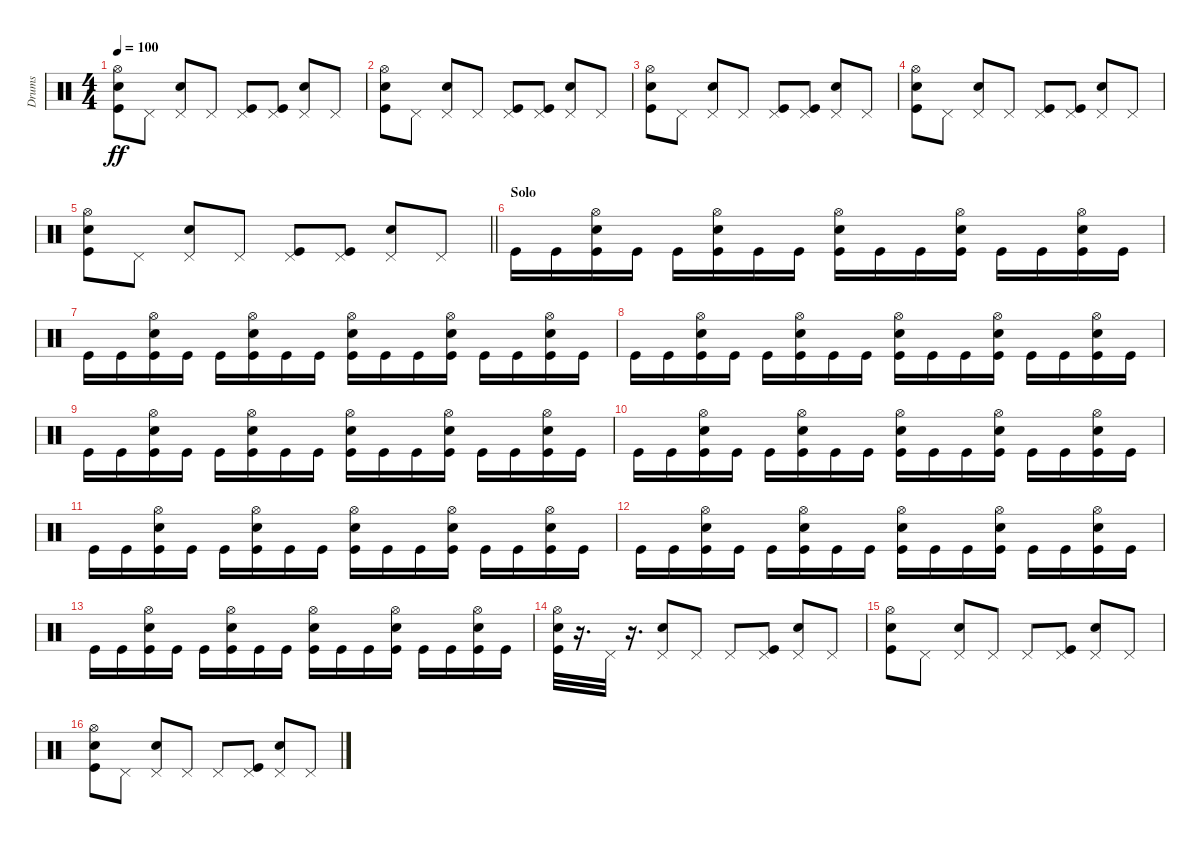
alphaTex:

\track ("Drums" "Drums") {instrument percussion}
\staff {score}
\articulation defaults
\ts (4 4)
\tempo 100
\clef neutral
\ks c
("Kick (hit)" "Electric Snare (hit)" "Hi-Hat (open)").8{dy ff} "Pedal Hi-Hat (hit)".8 ("Electric Snare (hit)" "Pedal Hi-Hat (hit)").8 "Pedal Hi-Hat (hit)".8 ("Kick (hit)" "Pedal Hi-Hat (hit)").8 ("Kick (hit)" "Pedal Hi-Hat (hit)").8 ("Electric Snare (hit)" "Pedal Hi-Hat (hit)").8 "Pedal Hi-Hat (hit)".8 |
("Kick (hit)" "Electric Snare (hit)" "Hi-Hat (open)").8 "Pedal Hi-Hat (hit)".8 ("Electric Snare (hit)" "Pedal Hi-Hat (hit)").8 "Pedal Hi-Hat (hit)".8 ("Kick (hit)" "Pedal Hi-Hat (hit)").8 ("Kick (hit)" "Pedal Hi-Hat (hit)").8 ("Electric Snare (hit)" "Pedal Hi-Hat (hit)").8 "Pedal Hi-Hat (hit)".8 |
("Kick (hit)" "Electric Snare (hit)" "Hi-Hat (open)").8 "Pedal Hi-Hat (hit)".8 ("Electric Snare (hit)" "Pedal Hi-Hat (hit)").8 "Pedal Hi-Hat (hit)".8 ("Kick (hit)" "Pedal Hi-Hat (hit)").8 ("Kick (hit)" "Pedal Hi-Hat (hit)").8 ("Electric Snare (hit)" "Pedal Hi-Hat (hit)").8 "Pedal Hi-Hat (hit)".8 |
("Kick (hit)" "Electric Snare (hit)" "Hi-Hat (open)").8 "Pedal Hi-Hat (hit)".8 ("Electric Snare (hit)" "Pedal Hi-Hat (hit)").8 "Pedal Hi-Hat (hit)".8 ("Kick (hit)" "Pedal Hi-Hat (hit)").8 ("Kick (hit)" "Pedal Hi-Hat (hit)").8 ("Electric Snare (hit)" "Pedal Hi-Hat (hit)").8 "Pedal Hi-Hat (hit)".8 |
\barLineRight lightlight
("Kick (hit)" "Electric Snare (hit)" "Hi-Hat (open)").8 "Pedal Hi-Hat (hit)".8 ("Electric Snare (hit)" "Pedal Hi-Hat (hit)").8 "Pedal Hi-Hat (hit)".8 ("Kick (hit)" "Pedal Hi-Hat (hit)").8 ("Kick (hit)" "Pedal Hi-Hat (hit)").8 ("Electric Snare (hit)" "Pedal Hi-Hat (hit)").8 "Pedal Hi-Hat (hit)".8 |
\section ("" "Solo")
"Kick (hit)".16 "Kick (hit)".16 ("Kick (hit)" "Electric Snare (hit)" "Hi-Hat (open)").16 "Kick (hit)".16 "Kick (hit)".16 ("Kick (hit)" "Electric Snare (hit)" "Hi-Hat (open)").16 "Kick (hit)".16 "Kick (hit)".16 ("Kick (hit)" "Electric Snare (hit)" "Hi-Hat (open)").16 "Kick (hit)".16 "Kick (hit)".16 ("Kick (hit)" "Electric Snare (hit)" "Hi-Hat (open)").16 "Kick (hit)".16 "Kick (hit)".16 ("Kick (hit)" "Electric Snare (hit)" "Hi-Hat (open)").16 "Kick (hit)".16 |
"Kick (hit)".16 "Kick (hit)".16 ("Kick (hit)" "Electric Snare (hit)" "Hi-Hat (open)").16 "Kick (hit)".16 "Kick (hit)".16 ("Kick (hit)" "Electric Snare (hit)" "Hi-Hat (open)").16 "Kick (hit)".16 "Kick (hit)".16 ("Kick (hit)" "Electric Snare (hit)" "Hi-Hat (open)").16 "Kick (hit)".16 "Kick (hit)".16 ("Kick (hit)" "Electric Snare (hit)" "Hi-Hat (open)").16 "Kick (hit)".16 "Kick (hit)".16 ("Kick (hit)" "Electric Snare (hit)" "Hi-Hat (open)").16 "Kick (hit)".16 |
"Kick (hit)".16 "Kick (hit)".16 ("Kick (hit)" "Electric Snare (hit)" "Hi-Hat (open)").16 "Kick (hit)".16 "Kick (hit)".16 ("Kick (hit)" "Electric Snare (hit)" "Hi-Hat (open)").16 "Kick (hit)".16 "Kick (hit)".16 ("Kick (hit)" "Electric Snare (hit)" "Hi-Hat (open)").16 "Kick (hit)".16 "Kick (hit)".16 ("Kick (hit)" "Electric Snare (hit)" "Hi-Hat (open)").16 "Kick (hit)".16 "Kick (hit)".16 ("Kick (hit)" "Electric Snare (hit)" "Hi-Hat (open)").16 "Kick (hit)".16 |
"Kick (hit)".16 "Kick (hit)".16 ("Kick (hit)" "Electric Snare (hit)" "Hi-Hat (open)").16 "Kick (hit)".16 "Kick (hit)".16 ("Kick (hit)" "Electric Snare (hit)" "Hi-Hat (open)").16 "Kick (hit)".16 "Kick (hit)".16 ("Kick (hit)" "Electric Snare (hit)" "Hi-Hat (open)").16 "Kick (hit)".16 "Kick (hit)".16 ("Kick (hit)" "Electric Snare (hit)" "Hi-Hat (open)").16 "Kick (hit)".16 "Kick (hit)".16 ("Kick (hit)" "Electric Snare (hit)" "Hi-Hat (open)").16 "Kick (hit)".16 |
"Kick (hit)".16 "Kick (hit)".16 ("Kick (hit)" "Electric Snare (hit)" "Hi-Hat (open)").16 "Kick (hit)".16 "Kick (hit)".16 ("Kick (hit)" "Electric Snare (hit)" "Hi-Hat (open)").16 "Kick (hit)".16 "Kick (hit)".16 ("Kick (hit)" "Electric Snare (hit)" "Hi-Hat (open)").16 "Kick (hit)".16 "Kick (hit)".16 ("Kick (hit)" "Electric Snare (hit)" "Hi-Hat (open)").16 "Kick (hit)".16 "Kick (hit)".16 ("Kick (hit)" "Electric Snare (hit)" "Hi-Hat (open)").16 "Kick (hit)".16 |
"Kick (hit)".16 "Kick (hit)".16 ("Kick (hit)" "Electric Snare (hit)" "Hi-Hat (open)").16 "Kick (hit)".16 "Kick (hit)".16 ("Kick (hit)" "Electric Snare (hit)" "Hi-Hat (open)").16 "Kick (hit)".16 "Kick (hit)".16 ("Kick (hit)" "Electric Snare (hit)" "Hi-Hat (open)").16 "Kick (hit)".16 "Kick (hit)".16 ("Kick (hit)" "Electric Snare (hit)" "Hi-Hat (open)").16 "Kick (hit)".16 "Kick (hit)".16 ("Kick (hit)" "Electric Snare (hit)" "Hi-Hat (open)").16 "Kick (hit)".16 |
"Kick (hit)".16 "Kick (hit)".16 ("Kick (hit)" "Electric Snare (hit)" "Hi-Hat (open)").16 "Kick (hit)".16 "Kick (hit)".16 ("Kick (hit)" "Electric Snare (hit)" "Hi-Hat (open)").16 "Kick (hit)".16 "Kick (hit)".16 ("Kick (hit)" "Electric Snare (hit)" "Hi-Hat (open)").16 "Kick (hit)".16 "Kick (hit)".16 ("Kick (hit)" "Electric Snare (hit)" "Hi-Hat (open)").16 "Kick (hit)".16 "Kick (hit)".16 ("Kick (hit)" "Electric Snare (hit)" "Hi-Hat (open)").16 "Kick (hit)".16 |
"Kick (hit)".16 "Kick (hit)".16 ("Kick (hit)" "Electric Snare (hit)" "Hi-Hat (open)").16 "Kick (hit)".16 "Kick (hit)".16 ("Kick (hit)" "Electric Snare (hit)" "Hi-Hat (open)").16 "Kick (hit)".16 "Kick (hit)".16 ("Kick (hit)" "Electric Snare (hit)" "Hi-Hat (open)").16 "Kick (hit)".16 "Kick (hit)".16 ("Kick (hit)" "Electric Snare (hit)" "Hi-Hat (open)").16 "Kick (hit)".16 "Kick (hit)".16 ("Kick (hit)" "Electric Snare (hit)" "Hi-Hat (open)").16 "Kick (hit)".16 |
("Kick (hit)" "Electric Snare (hit)" "Hi-Hat (open)").32 r.16{d} "Pedal Hi-Hat (hit)".32 r.16{d} ("Electric Snare (hit)" "Pedal Hi-Hat (hit)").8 "Pedal Hi-Hat (hit)".8 "Pedal Hi-Hat (hit)".8 ("Kick (hit)" "Pedal Hi-Hat (hit)").8 ("Electric Snare (hit)" "Pedal Hi-Hat (hit)").8 "Pedal Hi-Hat (hit)".8 |
("Kick (hit)" "Electric Snare (hit)" "Hi-Hat (open)").8 "Pedal Hi-Hat (hit)".8 ("Electric Snare (hit)" "Pedal Hi-Hat (hit)").8 "Pedal Hi-Hat (hit)".8 "Pedal Hi-Hat (hit)".8 ("Kick (hit)" "Pedal Hi-Hat (hit)").8 ("Electric Snare (hit)" "Pedal Hi-Hat (hit)").8 "Pedal Hi-Hat (hit)".8 |
("Kick (hit)" "Electric Snare (hit)" "Hi-Hat (open)").8 "Pedal Hi-Hat (hit)".8 ("Electric Snare (hit)" "Pedal Hi-Hat (hit)").8 "Pedal Hi-Hat (hit)".8 "Pedal Hi-Hat (hit)".8 ("Kick (hit)" "Pedal Hi-Hat (hit)").8 ("Electric Snare (hit)" "Pedal Hi-Hat (hit)").8 "Pedal Hi-Hat (hit)".8
